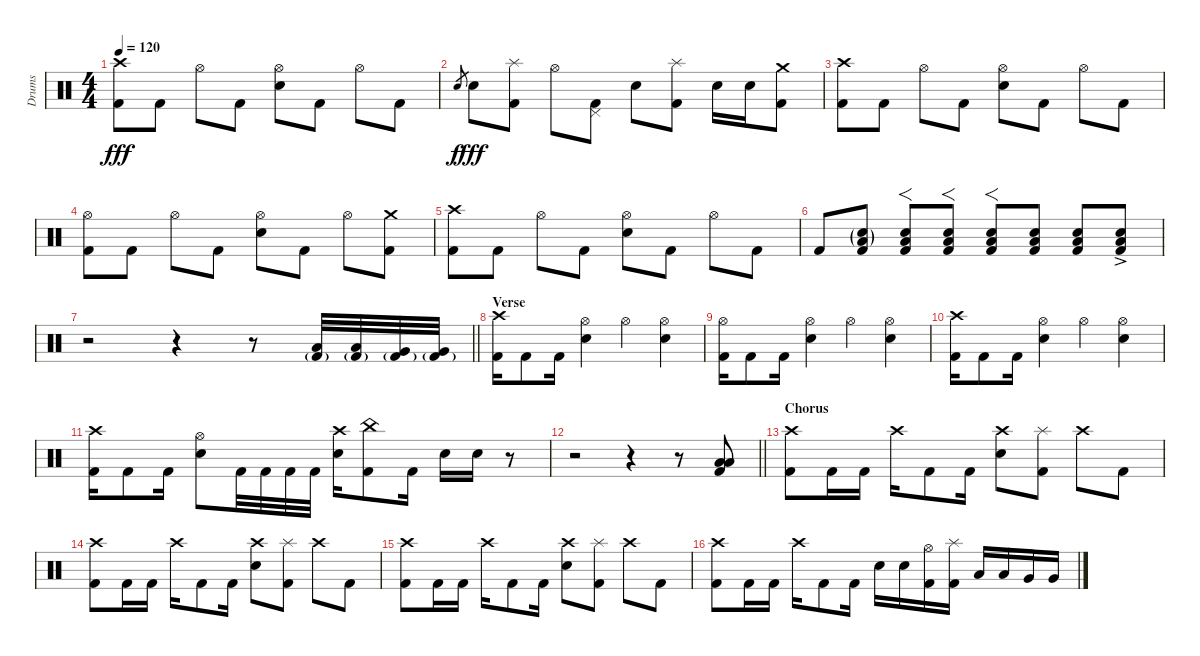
\track ("Drums" "Drums") {instrument percussion}
\staff {score}
\articulation defaults
\ts (4 4)
\tempo 120
\clef neutral
\ks c
("Crash high (hit)" "Kick (hit) 2").8{dy fff} "Kick (hit) 2".8 "Hi-Hat (open)".8 "Kick (hit) 2".8 ("Hi-Hat (open)" "Electric Snare (hit)").8 "Kick (hit) 2".8 "Hi-Hat (open)".8 "Kick (hit) 2".8 |
"Electric Snare (hit)".8{gr dy f} "Electric Snare (hit)".8{dy fff} ("Splash (hit)" "Kick (hit) 2").8 "Hi-Hat (open)".8 ("Pedal Hi-Hat (hit)" "Kick (hit) 2").8 "Electric Snare (hit)".8 ("Splash (hit)" "Kick (hit) 2").8 "Electric Snare (hit)".16 "Electric Snare (hit)".16 ("Crash medium (hit)" "Kick (hit) 2").8 |
("Crash high (hit)" "Kick (hit) 2").8 "Kick (hit) 2".8 "Hi-Hat (open)".8 "Kick (hit) 2".8 ("Hi-Hat (open)" "Electric Snare (hit)").8 "Kick (hit) 2".8 "Hi-Hat (open)".8 "Kick (hit) 2".8 |
("Hi-Hat (open)" "Kick (hit) 2").8 "Kick (hit) 2".8 "Hi-Hat (open)".8 "Kick (hit) 2".8 ("Hi-Hat (open)" "Electric Snare (hit)").8 "Kick (hit) 2".8 "Hi-Hat (open)".8 ("Crash medium (hit)" "Kick (hit) 2").8 |
("Crash high (hit)" "Kick (hit) 2").8 "Kick (hit) 2".8 "Hi-Hat (open)".8 "Kick (hit) 2".8 ("Hi-Hat (open)" "Electric Snare (hit)").8 "Kick (hit) 2".8 "Hi-Hat (open)".8 "Kick (hit) 2".8 |
"Kick (hit) 2".8 ("Electric Snare (hit)"{g} "Low Floor Tom (hit)"{g} "Kick (hit) 2").8 ("Electric Snare (hit)" "Low Floor Tom (hit)" "Kick (hit) 2").8{f} ("Electric Snare (hit)" "Low Floor Tom (hit)" "Kick (hit) 2").8{f} ("Electric Snare (hit)" "Low Floor Tom (hit)" "Kick (hit) 2").8{f} ("Electric Snare (hit)" "Low Floor Tom (hit)" "Kick (hit) 2").8 ("Electric Snare (hit)" "Low Floor Tom (hit)" "Kick (hit) 2").8 ("Electric Snare (hit)"{ac} "Low Floor Tom (hit)" "Kick (hit) 2").8 |
\barLineRight lightlight
r.2 r.4 r.8 ("Low Tom (hit)" "Kick (hit) 2"{g}).32 ("Low Tom (hit)" "Kick (hit) 2"{g}).32 ("Very Low Tom (hit)" "Kick (hit) 2"{g}).32 ("Very Low Tom (hit)" "Kick (hit) 2"{g}).32 |
\section ("" "Verse")
("Crash high (hit)" "Kick (hit) 2").16 "Kick (hit) 2".8 "Kick (hit) 2".16 ("Hi-Hat (open)" "Electric Snare (hit)").4 "Hi-Hat (open)".4 ("Hi-Hat (open)" "Electric Snare (hit)").4 |
("Hi-Hat (open)" "Kick (hit) 2").16 "Kick (hit) 2".8 "Kick (hit) 2".16 ("Hi-Hat (open)" "Electric Snare (hit)").4 "Hi-Hat (open)".4 ("Hi-Hat (open)" "Electric Snare (hit)").4 |
("Crash high (hit)" "Kick (hit) 2").16 "Kick (hit) 2".8 "Kick (hit) 2".16 ("Hi-Hat (open)" "Electric Snare (hit)").4 "Hi-Hat (open)".4 ("Hi-Hat (open)" "Electric Snare (hit)").4 |
("Crash high (hit)" "Kick (hit) 2").16 "Kick (hit) 2".8 "Kick (hit) 2".16 ("Hi-Hat (open)" "Electric Snare (hit)").8 "Kick (hit) 2".32 "Kick (hit) 2".32 "Kick (hit) 2".32 "Kick (hit) 2".32 ("Crash high (hit)" "Electric Snare (hit)").16 ("China (hit)" "Kick (hit) 2").8 "Kick (hit) 2".16 "Electric Snare (hit)".16 "Electric Snare (hit)".16 r.8 |
\barLineRight lightlight
r.2 r.4 r.8 ("Low Floor Tom (hit)" "Low Tom (hit)" "Kick (hit) 2").8 |
\section ("" "Chorus")
("Crash high (hit)" "Kick (hit) 2").8 "Kick (hit) 2".16 "Kick (hit) 2".16 "Crash high (hit)".16 "Kick (hit) 2".8 "Kick (hit) 2".16 ("Crash high (hit)" "Electric Snare (hit)").8 ("Splash (hit)" "Kick (hit) 2").8 "Crash high (hit)".8 "Kick (hit) 2".8 |
("Crash high (hit)" "Kick (hit) 2").8 "Kick (hit) 2".16 "Kick (hit) 2".16 "Crash high (hit)".16 "Kick (hit) 2".8 "Kick (hit) 2".16 ("Crash high (hit)" "Electric Snare (hit)").8 ("Splash (hit)" "Kick (hit) 2").8 "Crash high (hit)".8 "Kick (hit) 2".8 |
("Crash high (hit)" "Kick (hit) 2").8 "Kick (hit) 2".16 "Kick (hit) 2".16 "Crash high (hit)".16 "Kick (hit) 2".8 "Kick (hit) 2".16 ("Crash high (hit)" "Electric Snare (hit)").8 ("Splash (hit)" "Kick (hit) 2").8 "Crash high (hit)".8 "Kick (hit) 2".8 |
("Crash high (hit)" "Kick (hit) 2").8 "Kick (hit) 2".16 "Kick (hit) 2".16 "Crash high (hit)".16 "Kick (hit) 2".8 "Kick (hit) 2".16 "Electric Snare (hit)".16 "Electric Snare (hit)".16 ("Hi-Hat (open)" "Kick (hit) 2").16 ("Splash (hit)" "Kick (hit) 2").16 "Low Tom (hit)".16 "Low Tom (hit)".16 "Very Low Tom (hit)".16 "Very Low Tom (hit)".16
